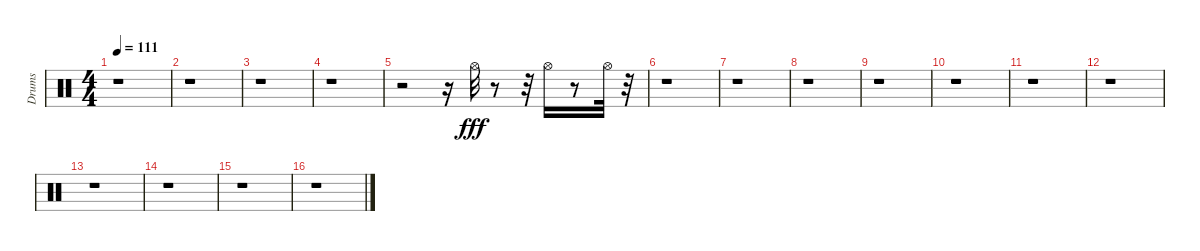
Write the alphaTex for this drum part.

\track ("Drums" "Drums") {instrument percussion}
\staff {score}
\articulation defaults
\ts (4 4)
\tempo 111
\clef neutral
\ks c
r.1{dy fff} |
r.1 |
r.1 |
r.1 |
r.2 r.16 "Hi-Hat (open)".32 r.8 r.32 "Hi-Hat (open)".16 r.8 "Hi-Hat (open)".32 r.32 |
r.1 |
r.1 |
r.1 |
r.1 |
r.1 |
r.1 |
r.1 |
r.1 |
r.1 |
r.1 |
r.1
